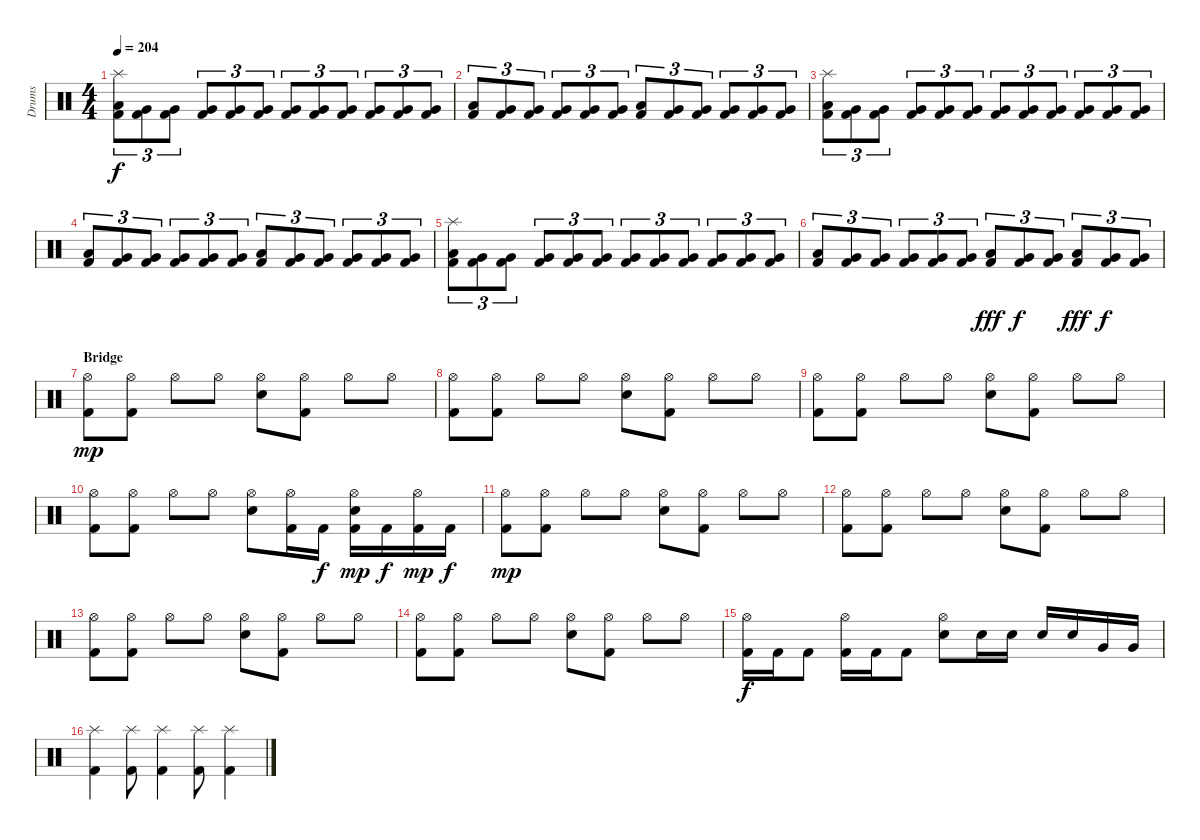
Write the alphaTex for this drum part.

\track ("Drums" "Drums") {instrument percussion}
\staff {score}
\articulation defaults
\ts (4 4)
\tempo 204
\clef neutral
\ks c
("Splash (hit)" "Low Tom (hit)" "Kick (hit) 2").8{tu (3 2) dy f} ("Very Low Tom (hit)" "Kick (hit) 2").8{tu (3 2)} ("Very Low Tom (hit)" "Kick (hit) 2").8{tu (3 2)} ("Very Low Tom (hit)" "Kick (hit) 2").8{tu (3 2)} ("Very Low Tom (hit)" "Kick (hit) 2").8{tu (3 2)} ("Very Low Tom (hit)" "Kick (hit) 2").8{tu (3 2)} ("Very Low Tom (hit)" "Kick (hit) 2").8{tu (3 2)} ("Very Low Tom (hit)" "Kick (hit) 2").8{tu (3 2)} ("Very Low Tom (hit)" "Kick (hit) 2").8{tu (3 2)} ("Very Low Tom (hit)" "Kick (hit) 2").8{tu (3 2)} ("Very Low Tom (hit)" "Kick (hit) 2").8{tu (3 2)} ("Very Low Tom (hit)" "Kick (hit) 2").8{tu (3 2)} |
("Low Tom (hit)" "Kick (hit) 2").8{tu (3 2)} ("Very Low Tom (hit)" "Kick (hit) 2").8{tu (3 2)} ("Very Low Tom (hit)" "Kick (hit) 2").8{tu (3 2)} ("Very Low Tom (hit)" "Kick (hit) 2").8{tu (3 2)} ("Very Low Tom (hit)" "Kick (hit) 2").8{tu (3 2)} ("Very Low Tom (hit)" "Kick (hit) 2").8{tu (3 2)} ("Low Tom (hit)" "Kick (hit) 2").8{tu (3 2)} ("Very Low Tom (hit)" "Kick (hit) 2").8{tu (3 2)} ("Very Low Tom (hit)" "Kick (hit) 2").8{tu (3 2)} ("Very Low Tom (hit)" "Kick (hit) 2").8{tu (3 2)} ("Very Low Tom (hit)" "Kick (hit) 2").8{tu (3 2)} ("Very Low Tom (hit)" "Kick (hit) 2").8{tu (3 2)} |
("Splash (hit)" "Low Tom (hit)" "Kick (hit) 2").8{tu (3 2)} ("Very Low Tom (hit)" "Kick (hit) 2").8{tu (3 2)} ("Very Low Tom (hit)" "Kick (hit) 2").8{tu (3 2)} ("Very Low Tom (hit)" "Kick (hit) 2").8{tu (3 2)} ("Very Low Tom (hit)" "Kick (hit) 2").8{tu (3 2)} ("Very Low Tom (hit)" "Kick (hit) 2").8{tu (3 2)} ("Very Low Tom (hit)" "Kick (hit) 2").8{tu (3 2)} ("Very Low Tom (hit)" "Kick (hit) 2").8{tu (3 2)} ("Very Low Tom (hit)" "Kick (hit) 2").8{tu (3 2)} ("Very Low Tom (hit)" "Kick (hit) 2").8{tu (3 2)} ("Very Low Tom (hit)" "Kick (hit) 2").8{tu (3 2)} ("Very Low Tom (hit)" "Kick (hit) 2").8{tu (3 2)} |
("Low Tom (hit)" "Kick (hit) 2").8{tu (3 2)} ("Very Low Tom (hit)" "Kick (hit) 2").8{tu (3 2)} ("Very Low Tom (hit)" "Kick (hit) 2").8{tu (3 2)} ("Very Low Tom (hit)" "Kick (hit) 2").8{tu (3 2)} ("Very Low Tom (hit)" "Kick (hit) 2").8{tu (3 2)} ("Very Low Tom (hit)" "Kick (hit) 2").8{tu (3 2)} ("Low Tom (hit)" "Kick (hit) 2").8{tu (3 2)} ("Very Low Tom (hit)" "Kick (hit) 2").8{tu (3 2)} ("Very Low Tom (hit)" "Kick (hit) 2").8{tu (3 2)} ("Very Low Tom (hit)" "Kick (hit) 2").8{tu (3 2)} ("Very Low Tom (hit)" "Kick (hit) 2").8{tu (3 2)} ("Very Low Tom (hit)" "Kick (hit) 2").8{tu (3 2)} |
("Splash (hit)" "Low Tom (hit)" "Kick (hit) 2").8{tu (3 2)} ("Very Low Tom (hit)" "Kick (hit) 2").8{tu (3 2)} ("Very Low Tom (hit)" "Kick (hit) 2").8{tu (3 2)} ("Very Low Tom (hit)" "Kick (hit) 2").8{tu (3 2)} ("Very Low Tom (hit)" "Kick (hit) 2").8{tu (3 2)} ("Very Low Tom (hit)" "Kick (hit) 2").8{tu (3 2)} ("Very Low Tom (hit)" "Kick (hit) 2").8{tu (3 2)} ("Very Low Tom (hit)" "Kick (hit) 2").8{tu (3 2)} ("Very Low Tom (hit)" "Kick (hit) 2").8{tu (3 2)} ("Very Low Tom (hit)" "Kick (hit) 2").8{tu (3 2)} ("Very Low Tom (hit)" "Kick (hit) 2").8{tu (3 2)} ("Very Low Tom (hit)" "Kick (hit) 2").8{tu (3 2)} |
("Low Tom (hit)" "Kick (hit) 2").8{tu (3 2)} ("Very Low Tom (hit)" "Kick (hit) 2").8{tu (3 2)} ("Very Low Tom (hit)" "Kick (hit) 2").8{tu (3 2)} ("Very Low Tom (hit)" "Kick (hit) 2").8{tu (3 2)} ("Very Low Tom (hit)" "Kick (hit) 2").8{tu (3 2)} ("Very Low Tom (hit)" "Kick (hit) 2").8{tu (3 2)} ("Low Tom (hit)" "Kick (hit) 2").8{tu (3 2) dy fff} ("Very Low Tom (hit)" "Kick (hit) 2").8{tu (3 2) dy f} ("Very Low Tom (hit)" "Kick (hit) 2").8{tu (3 2)} ("Low Tom (hit)" "Kick (hit) 2").8{tu (3 2) dy fff} ("Very Low Tom (hit)" "Kick (hit) 2").8{tu (3 2) dy f} ("Very Low Tom (hit)" "Kick (hit) 2").8{tu (3 2)} |
\section ("" "Bridge")
("Hi-Hat (open)" "Kick (hit) 2").8{dy mp} ("Hi-Hat (open)" "Kick (hit) 2").8 "Hi-Hat (open)".8 "Hi-Hat (open)".8 ("Hi-Hat (open)" "Electric Snare (hit)").8 ("Hi-Hat (open)" "Kick (hit) 2").8 "Hi-Hat (open)".8 "Hi-Hat (open)".8 |
("Hi-Hat (open)" "Kick (hit) 2").8 ("Hi-Hat (open)" "Kick (hit) 2").8 "Hi-Hat (open)".8 "Hi-Hat (open)".8 ("Hi-Hat (open)" "Electric Snare (hit)").8 ("Hi-Hat (open)" "Kick (hit) 2").8 "Hi-Hat (open)".8 "Hi-Hat (open)".8 |
("Hi-Hat (open)" "Kick (hit) 2").8 ("Hi-Hat (open)" "Kick (hit) 2").8 "Hi-Hat (open)".8 "Hi-Hat (open)".8 ("Hi-Hat (open)" "Electric Snare (hit)").8 ("Hi-Hat (open)" "Kick (hit) 2").8 "Hi-Hat (open)".8 "Hi-Hat (open)".8 |
("Hi-Hat (open)" "Kick (hit) 2").8 ("Hi-Hat (open)" "Kick (hit) 2").8 "Hi-Hat (open)".8 "Hi-Hat (open)".8 ("Hi-Hat (open)" "Electric Snare (hit)").8 ("Hi-Hat (open)" "Kick (hit) 2").16 "Kick (hit) 2".16{dy f} ("Hi-Hat (open)" "Electric Snare (hit)" "Kick (hit) 2").16{dy mp} "Kick (hit) 2".16{dy f} ("Hi-Hat (open)" "Kick (hit) 2").16{dy mp} "Kick (hit) 2".16{dy f} |
("Hi-Hat (open)" "Kick (hit) 2").8{dy mp} ("Hi-Hat (open)" "Kick (hit) 2").8 "Hi-Hat (open)".8 "Hi-Hat (open)".8 ("Hi-Hat (open)" "Electric Snare (hit)").8 ("Hi-Hat (open)" "Kick (hit) 2").8 "Hi-Hat (open)".8 "Hi-Hat (open)".8 |
("Hi-Hat (open)" "Kick (hit) 2").8 ("Hi-Hat (open)" "Kick (hit) 2").8 "Hi-Hat (open)".8 "Hi-Hat (open)".8 ("Hi-Hat (open)" "Electric Snare (hit)").8 ("Hi-Hat (open)" "Kick (hit) 2").8 "Hi-Hat (open)".8 "Hi-Hat (open)".8 |
("Hi-Hat (open)" "Kick (hit) 2").8 ("Hi-Hat (open)" "Kick (hit) 2").8 "Hi-Hat (open)".8 "Hi-Hat (open)".8 ("Hi-Hat (open)" "Electric Snare (hit)").8 ("Hi-Hat (open)" "Kick (hit) 2").8 "Hi-Hat (open)".8 "Hi-Hat (open)".8 |
("Hi-Hat (open)" "Kick (hit) 2").8 ("Hi-Hat (open)" "Kick (hit) 2").8 "Hi-Hat (open)".8 "Hi-Hat (open)".8 ("Hi-Hat (open)" "Electric Snare (hit)").8 ("Hi-Hat (open)" "Kick (hit) 2").8 "Hi-Hat (open)".8 "Hi-Hat (open)".8 |
("Hi-Hat (open)" "Kick (hit) 2").16{dy f} "Kick (hit) 2".16 "Kick (hit) 2".8 ("Hi-Hat (open)" "Kick (hit) 2").16 "Kick (hit) 2".16 "Kick (hit) 2".8 ("Hi-Hat (open)" "Electric Snare (hit)").8 "Electric Snare (hit)".16 "Electric Snare (hit)".16 "Electric Snare (hit)".16 "Electric Snare (hit)".16 "Very Low Tom (hit)".16 "Very Low Tom (hit)".16 |
("Splash (hit)" "Kick (hit) 2").4 ("Splash (hit)" "Kick (hit) 2").8 ("Splash (hit)" "Kick (hit) 2").4 ("Splash (hit)" "Kick (hit) 2").8 ("Splash (hit)" "Kick (hit) 2").4
